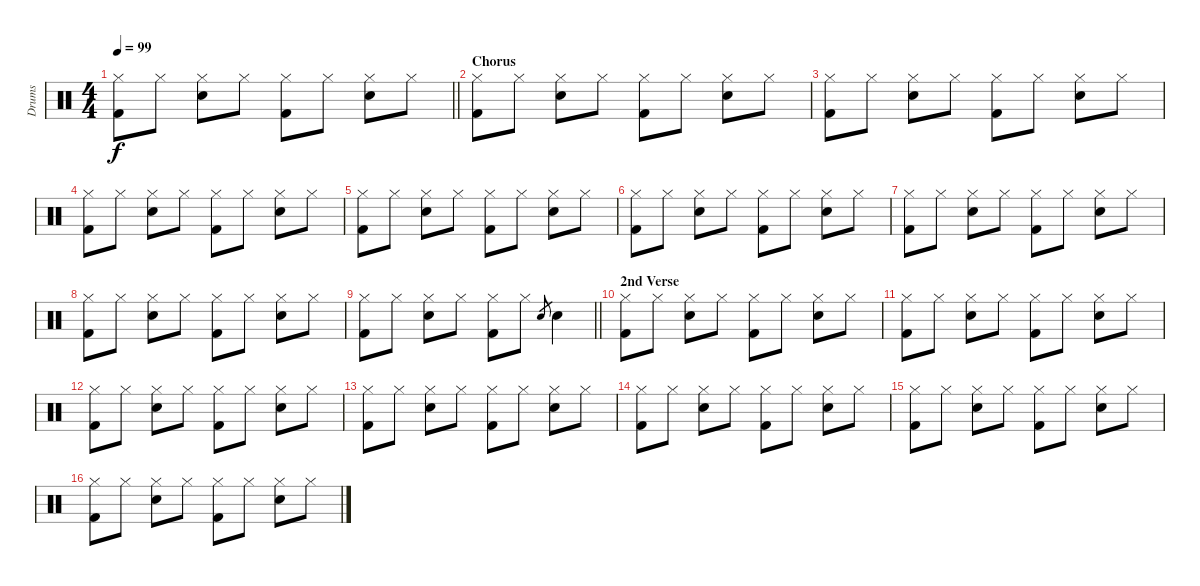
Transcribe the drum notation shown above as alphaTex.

\track ("Drums" "Drums") {instrument percussion}
\staff {score}
\articulation defaults
\ts (4 4)
\tempo 99
\clef neutral
\barLineRight lightlight
\ks c
("Hi-Hat (closed)" "Kick (hit) 2").8{dy f} "Hi-Hat (closed)".8 ("Hi-Hat (closed)" "Snare (hit) 2").8 "Hi-Hat (closed)".8 ("Hi-Hat (closed)" "Kick (hit) 2").8 "Hi-Hat (closed)".8 ("Hi-Hat (closed)" "Snare (hit) 2").8 "Hi-Hat (closed)".8 |
\section ("" "Chorus")
("Hi-Hat (closed)" "Kick (hit) 2").8 "Hi-Hat (closed)".8 ("Hi-Hat (closed)" "Snare (hit) 2").8 "Hi-Hat (closed)".8 ("Hi-Hat (closed)" "Kick (hit) 2").8 "Hi-Hat (closed)".8 ("Hi-Hat (closed)" "Snare (hit) 2").8 "Hi-Hat (closed)".8 |
("Hi-Hat (closed)" "Kick (hit) 2").8 "Hi-Hat (closed)".8 ("Hi-Hat (closed)" "Snare (hit) 2").8 "Hi-Hat (closed)".8 ("Hi-Hat (closed)" "Kick (hit) 2").8 "Hi-Hat (closed)".8 ("Hi-Hat (closed)" "Snare (hit) 2").8 "Hi-Hat (closed)".8 |
("Hi-Hat (closed)" "Kick (hit) 2").8 "Hi-Hat (closed)".8 ("Hi-Hat (closed)" "Snare (hit) 2").8 "Hi-Hat (closed)".8 ("Hi-Hat (closed)" "Kick (hit) 2").8 "Hi-Hat (closed)".8 ("Hi-Hat (closed)" "Snare (hit) 2").8 "Hi-Hat (closed)".8 |
("Hi-Hat (closed)" "Kick (hit) 2").8 "Hi-Hat (closed)".8 ("Hi-Hat (closed)" "Snare (hit) 2").8 "Hi-Hat (closed)".8 ("Hi-Hat (closed)" "Kick (hit) 2").8 "Hi-Hat (closed)".8 ("Hi-Hat (closed)" "Snare (hit) 2").8 "Hi-Hat (closed)".8 |
("Hi-Hat (closed)" "Kick (hit) 2").8 "Hi-Hat (closed)".8 ("Hi-Hat (closed)" "Snare (hit) 2").8 "Hi-Hat (closed)".8 ("Hi-Hat (closed)" "Kick (hit) 2").8 "Hi-Hat (closed)".8 ("Hi-Hat (closed)" "Snare (hit) 2").8 "Hi-Hat (closed)".8 |
("Hi-Hat (closed)" "Kick (hit) 2").8 "Hi-Hat (closed)".8 ("Hi-Hat (closed)" "Snare (hit) 2").8 "Hi-Hat (closed)".8 ("Hi-Hat (closed)" "Kick (hit) 2").8 "Hi-Hat (closed)".8 ("Hi-Hat (closed)" "Snare (hit) 2").8 "Hi-Hat (closed)".8 |
("Hi-Hat (closed)" "Kick (hit) 2").8 "Hi-Hat (closed)".8 ("Hi-Hat (closed)" "Snare (hit) 2").8 "Hi-Hat (closed)".8 ("Hi-Hat (closed)" "Kick (hit) 2").8 "Hi-Hat (closed)".8 ("Hi-Hat (closed)" "Snare (hit) 2").8 "Hi-Hat (closed)".8 |
\barLineRight lightlight
("Hi-Hat (closed)" "Kick (hit) 2").8 "Hi-Hat (closed)".8 ("Hi-Hat (closed)" "Snare (hit) 2").8 "Hi-Hat (closed)".8 ("Hi-Hat (closed)" "Kick (hit) 2").8 "Hi-Hat (closed)".8 "Snare (hit) 2".8{gr} "Snare (hit) 2".4 |
\section ("" "2nd Verse")
("Hi-Hat (closed)" "Kick (hit) 2").8 "Hi-Hat (closed)".8 ("Hi-Hat (closed)" "Snare (hit) 2").8 "Hi-Hat (closed)".8 ("Hi-Hat (closed)" "Kick (hit) 2").8 "Hi-Hat (closed)".8 ("Hi-Hat (closed)" "Snare (hit) 2").8 "Hi-Hat (closed)".8 |
("Hi-Hat (closed)" "Kick (hit) 2").8 "Hi-Hat (closed)".8 ("Hi-Hat (closed)" "Snare (hit) 2").8 "Hi-Hat (closed)".8 ("Hi-Hat (closed)" "Kick (hit) 2").8 "Hi-Hat (closed)".8 ("Hi-Hat (closed)" "Snare (hit) 2").8 "Hi-Hat (closed)".8 |
("Hi-Hat (closed)" "Kick (hit) 2").8 "Hi-Hat (closed)".8 ("Hi-Hat (closed)" "Snare (hit) 2").8 "Hi-Hat (closed)".8 ("Hi-Hat (closed)" "Kick (hit) 2").8 "Hi-Hat (closed)".8 ("Hi-Hat (closed)" "Snare (hit) 2").8 "Hi-Hat (closed)".8 |
("Hi-Hat (closed)" "Kick (hit) 2").8 "Hi-Hat (closed)".8 ("Hi-Hat (closed)" "Snare (hit) 2").8 "Hi-Hat (closed)".8 ("Hi-Hat (closed)" "Kick (hit) 2").8 "Hi-Hat (closed)".8 ("Hi-Hat (closed)" "Snare (hit) 2").8 "Hi-Hat (closed)".8 |
("Hi-Hat (closed)" "Kick (hit) 2").8 "Hi-Hat (closed)".8 ("Hi-Hat (closed)" "Snare (hit) 2").8 "Hi-Hat (closed)".8 ("Hi-Hat (closed)" "Kick (hit) 2").8 "Hi-Hat (closed)".8 ("Hi-Hat (closed)" "Snare (hit) 2").8 "Hi-Hat (closed)".8 |
("Hi-Hat (closed)" "Kick (hit) 2").8 "Hi-Hat (closed)".8 ("Hi-Hat (closed)" "Snare (hit) 2").8 "Hi-Hat (closed)".8 ("Hi-Hat (closed)" "Kick (hit) 2").8 "Hi-Hat (closed)".8 ("Hi-Hat (closed)" "Snare (hit) 2").8 "Hi-Hat (closed)".8 |
("Hi-Hat (closed)" "Kick (hit) 2").8 "Hi-Hat (closed)".8 ("Hi-Hat (closed)" "Snare (hit) 2").8 "Hi-Hat (closed)".8 ("Hi-Hat (closed)" "Kick (hit) 2").8 "Hi-Hat (closed)".8 ("Hi-Hat (closed)" "Snare (hit) 2").8 "Hi-Hat (closed)".8
